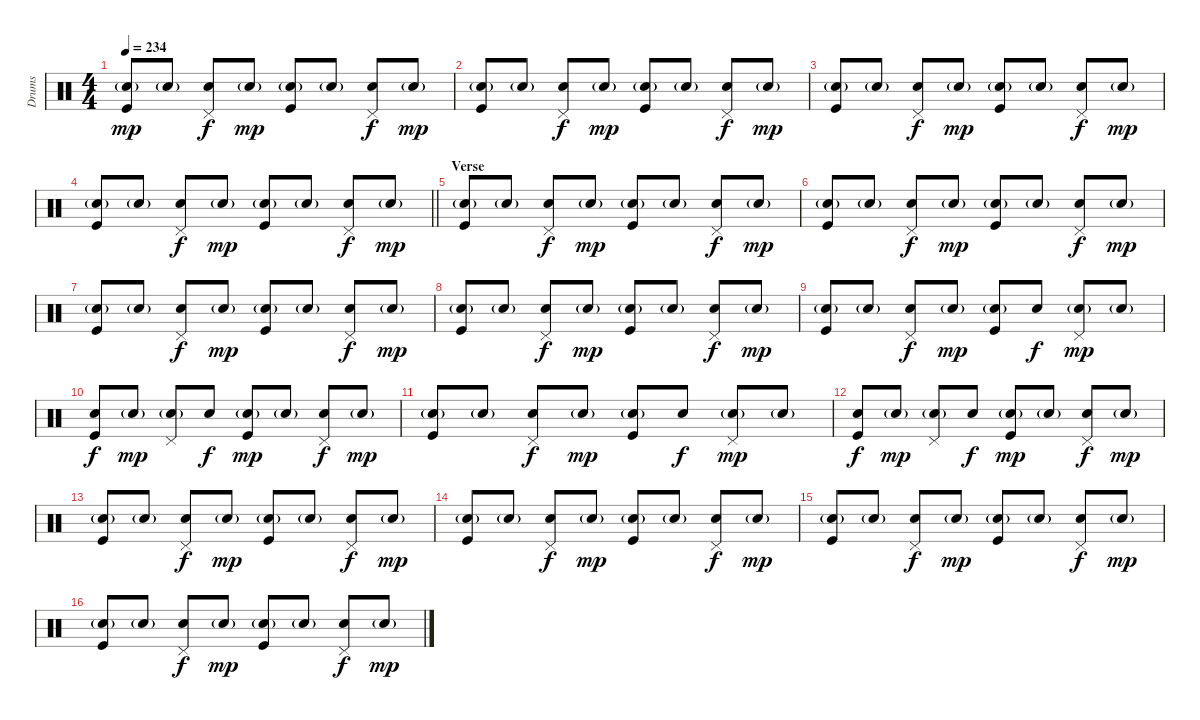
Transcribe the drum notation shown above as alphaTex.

\track ("Drums" "Drums") {instrument percussion}
\staff {score}
\articulation defaults
\ts (4 4)
\tempo 234
\clef neutral
\ks c
("Snare (hit) 2"{g} "Kick (hit)").8{dy mp} "Snare (hit) 2"{g}.8 ("Snare (hit) 2" "Pedal Hi-Hat (hit)").8{dy f} "Snare (hit) 2"{g}.8{dy mp} ("Snare (hit) 2"{g} "Kick (hit)").8 "Snare (hit) 2"{g}.8 ("Snare (hit) 2" "Pedal Hi-Hat (hit)").8{dy f} "Snare (hit) 2"{g}.8{dy mp} |
("Snare (hit) 2"{g} "Kick (hit)").8 "Snare (hit) 2"{g}.8 ("Snare (hit) 2" "Pedal Hi-Hat (hit)").8{dy f} "Snare (hit) 2"{g}.8{dy mp} ("Snare (hit) 2"{g} "Kick (hit)").8 "Snare (hit) 2"{g}.8 ("Snare (hit) 2" "Pedal Hi-Hat (hit)").8{dy f} "Snare (hit) 2"{g}.8{dy mp} |
("Snare (hit) 2"{g} "Kick (hit)").8 "Snare (hit) 2"{g}.8 ("Snare (hit) 2" "Pedal Hi-Hat (hit)").8{dy f} "Snare (hit) 2"{g}.8{dy mp} ("Snare (hit) 2"{g} "Kick (hit)").8 "Snare (hit) 2"{g}.8 ("Snare (hit) 2" "Pedal Hi-Hat (hit)").8{dy f} "Snare (hit) 2"{g}.8{dy mp} |
\barLineRight lightlight
("Snare (hit) 2"{g} "Kick (hit)").8 "Snare (hit) 2"{g}.8 ("Snare (hit) 2" "Pedal Hi-Hat (hit)").8{dy f} "Snare (hit) 2"{g}.8{dy mp} ("Snare (hit) 2"{g} "Kick (hit)").8 "Snare (hit) 2"{g}.8 ("Snare (hit) 2" "Pedal Hi-Hat (hit)").8{dy f} "Snare (hit) 2"{g}.8{dy mp} |
\section ("" "Verse")
("Snare (hit) 2"{g} "Kick (hit)").8 "Snare (hit) 2"{g}.8 ("Snare (hit) 2" "Pedal Hi-Hat (hit)").8{dy f} "Snare (hit) 2"{g}.8{dy mp} ("Snare (hit) 2"{g} "Kick (hit)").8 "Snare (hit) 2"{g}.8 ("Snare (hit) 2" "Pedal Hi-Hat (hit)").8{dy f} "Snare (hit) 2"{g}.8{dy mp} |
("Snare (hit) 2"{g} "Kick (hit)").8 "Snare (hit) 2"{g}.8 ("Snare (hit) 2" "Pedal Hi-Hat (hit)").8{dy f} "Snare (hit) 2"{g}.8{dy mp} ("Snare (hit) 2"{g} "Kick (hit)").8 "Snare (hit) 2"{g}.8 ("Snare (hit) 2" "Pedal Hi-Hat (hit)").8{dy f} "Snare (hit) 2"{g}.8{dy mp} |
("Snare (hit) 2"{g} "Kick (hit)").8 "Snare (hit) 2"{g}.8 ("Snare (hit) 2" "Pedal Hi-Hat (hit)").8{dy f} "Snare (hit) 2"{g}.8{dy mp} ("Snare (hit) 2"{g} "Kick (hit)").8 "Snare (hit) 2"{g}.8 ("Snare (hit) 2" "Pedal Hi-Hat (hit)").8{dy f} "Snare (hit) 2"{g}.8{dy mp} |
("Snare (hit) 2"{g} "Kick (hit)").8 "Snare (hit) 2"{g}.8 ("Snare (hit) 2" "Pedal Hi-Hat (hit)").8{dy f} "Snare (hit) 2"{g}.8{dy mp} ("Snare (hit) 2"{g} "Kick (hit)").8 "Snare (hit) 2"{g}.8 ("Snare (hit) 2" "Pedal Hi-Hat (hit)").8{dy f} "Snare (hit) 2"{g}.8{dy mp} |
("Snare (hit) 2"{g} "Kick (hit)").8 "Snare (hit) 2"{g}.8 ("Snare (hit) 2" "Pedal Hi-Hat (hit)").8{dy f} "Snare (hit) 2"{g}.8{dy mp} ("Snare (hit) 2"{g} "Kick (hit)").8 "Snare (hit) 2".8{dy f} ("Snare (hit) 2"{g} "Pedal Hi-Hat (hit)").8{dy mp} "Snare (hit) 2"{g}.8 |
("Snare (hit) 2" "Kick (hit)").8{dy f} "Snare (hit) 2"{g}.8{dy mp} ("Snare (hit) 2"{g} "Pedal Hi-Hat (hit)").8 "Snare (hit) 2".8{dy f} ("Snare (hit) 2"{g} "Kick (hit)").8{dy mp} "Snare (hit) 2"{g}.8 ("Snare (hit) 2" "Pedal Hi-Hat (hit)").8{dy f} "Snare (hit) 2"{g}.8{dy mp} |
("Snare (hit) 2"{g} "Kick (hit)").8 "Snare (hit) 2"{g}.8 ("Snare (hit) 2" "Pedal Hi-Hat (hit)").8{dy f} "Snare (hit) 2"{g}.8{dy mp} ("Snare (hit) 2"{g} "Kick (hit)").8 "Snare (hit) 2".8{dy f} ("Snare (hit) 2"{g} "Pedal Hi-Hat (hit)").8{dy mp} "Snare (hit) 2"{g}.8 |
("Snare (hit) 2" "Kick (hit)").8{dy f} "Snare (hit) 2"{g}.8{dy mp} ("Snare (hit) 2"{g} "Pedal Hi-Hat (hit)").8 "Snare (hit) 2".8{dy f} ("Snare (hit) 2"{g} "Kick (hit)").8{dy mp} "Snare (hit) 2"{g}.8 ("Snare (hit) 2" "Pedal Hi-Hat (hit)").8{dy f} "Snare (hit) 2"{g}.8{dy mp} |
("Snare (hit) 2"{g} "Kick (hit)").8 "Snare (hit) 2"{g}.8 ("Snare (hit) 2" "Pedal Hi-Hat (hit)").8{dy f} "Snare (hit) 2"{g}.8{dy mp} ("Snare (hit) 2"{g} "Kick (hit)").8 "Snare (hit) 2"{g}.8 ("Snare (hit) 2" "Pedal Hi-Hat (hit)").8{dy f} "Snare (hit) 2"{g}.8{dy mp} |
("Snare (hit) 2"{g} "Kick (hit)").8 "Snare (hit) 2"{g}.8 ("Snare (hit) 2" "Pedal Hi-Hat (hit)").8{dy f} "Snare (hit) 2"{g}.8{dy mp} ("Snare (hit) 2"{g} "Kick (hit)").8 "Snare (hit) 2"{g}.8 ("Snare (hit) 2" "Pedal Hi-Hat (hit)").8{dy f} "Snare (hit) 2"{g}.8{dy mp} |
("Snare (hit) 2"{g} "Kick (hit)").8 "Snare (hit) 2"{g}.8 ("Snare (hit) 2" "Pedal Hi-Hat (hit)").8{dy f} "Snare (hit) 2"{g}.8{dy mp} ("Snare (hit) 2"{g} "Kick (hit)").8 "Snare (hit) 2"{g}.8 ("Snare (hit) 2" "Pedal Hi-Hat (hit)").8{dy f} "Snare (hit) 2"{g}.8{dy mp} |
("Snare (hit) 2"{g} "Kick (hit)").8 "Snare (hit) 2"{g}.8 ("Snare (hit) 2" "Pedal Hi-Hat (hit)").8{dy f} "Snare (hit) 2"{g}.8{dy mp} ("Snare (hit) 2"{g} "Kick (hit)").8 "Snare (hit) 2"{g}.8 ("Snare (hit) 2" "Pedal Hi-Hat (hit)").8{dy f} "Snare (hit) 2"{g}.8{dy mp}
